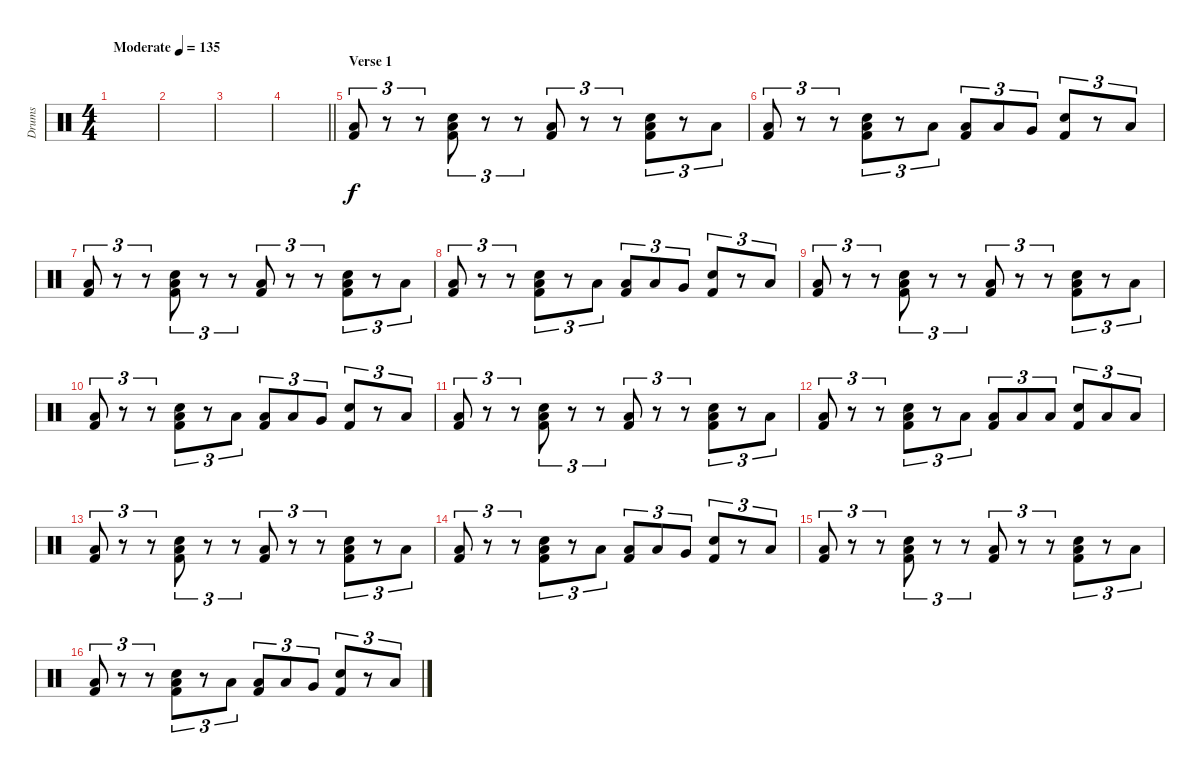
\track ("Drums" "Drums") {instrument percussion}
\staff {score}
\articulation defaults
\ts (4 4)
\tempo (135 "Moderate")
\clef neutral
\ks c
|
|
|
\barLineRight lightlight
|
\section ("" "Verse 1")
("Low Floor Tom (hit)" "Kick (hit) 2").8{tu (3 2)} r.8{tu (3 2)} r.8{tu (3 2)} ("Electric Snare (hit)" "Low Floor Tom (hit)" "Kick (hit) 2").8{tu (3 2)} r.8{tu (3 2)} r.8{tu (3 2)} ("Low Floor Tom (hit)" "Kick (hit) 2").8{tu (3 2)} r.8{tu (3 2)} r.8{tu (3 2)} ("Electric Snare (hit)" "Low Floor Tom (hit)" "Kick (hit) 2").8{tu (3 2)} r.8{tu (3 2)} "Low Floor Tom (hit)".8{tu (3 2)} |
("Low Floor Tom (hit)" "Kick (hit) 2").8{tu (3 2)} r.8{tu (3 2)} r.8{tu (3 2)} ("Electric Snare (hit)" "Low Floor Tom (hit)" "Kick (hit) 2").8{tu (3 2)} r.8{tu (3 2)} "Low Floor Tom (hit)".8{tu (3 2)} ("Low Floor Tom (hit)" "Kick (hit) 2").8{tu (3 2)} "Low Tom (hit)".8{tu (3 2)} "Very Low Tom (hit)".8{tu (3 2)} ("Electric Snare (hit)" "Kick (hit) 2").8{tu (3 2)} r.8{tu (3 2)} "Low Floor Tom (hit)".8{tu (3 2)} |
("Low Floor Tom (hit)" "Kick (hit) 2").8{tu (3 2)} r.8{tu (3 2)} r.8{tu (3 2)} ("Electric Snare (hit)" "Low Floor Tom (hit)" "Kick (hit) 2").8{tu (3 2)} r.8{tu (3 2)} r.8{tu (3 2)} ("Low Floor Tom (hit)" "Kick (hit) 2").8{tu (3 2)} r.8{tu (3 2)} r.8{tu (3 2)} ("Electric Snare (hit)" "Low Floor Tom (hit)" "Kick (hit) 2").8{tu (3 2)} r.8{tu (3 2)} "Low Floor Tom (hit)".8{tu (3 2)} |
("Low Floor Tom (hit)" "Kick (hit) 2").8{tu (3 2)} r.8{tu (3 2)} r.8{tu (3 2)} ("Electric Snare (hit)" "Low Floor Tom (hit)" "Kick (hit) 2").8{tu (3 2)} r.8{tu (3 2)} "Low Floor Tom (hit)".8{tu (3 2)} ("Low Floor Tom (hit)" "Kick (hit) 2").8{tu (3 2)} "Low Tom (hit)".8{tu (3 2)} "Very Low Tom (hit)".8{tu (3 2)} ("Electric Snare (hit)" "Kick (hit) 2").8{tu (3 2)} r.8{tu (3 2)} "Low Floor Tom (hit)".8{tu (3 2)} |
("Low Floor Tom (hit)" "Kick (hit) 2").8{tu (3 2)} r.8{tu (3 2)} r.8{tu (3 2)} ("Electric Snare (hit)" "Low Floor Tom (hit)" "Kick (hit) 2").8{tu (3 2)} r.8{tu (3 2)} r.8{tu (3 2)} ("Low Floor Tom (hit)" "Kick (hit) 2").8{tu (3 2)} r.8{tu (3 2)} r.8{tu (3 2)} ("Electric Snare (hit)" "Low Floor Tom (hit)" "Kick (hit) 2").8{tu (3 2)} r.8{tu (3 2)} "Low Floor Tom (hit)".8{tu (3 2)} |
("Low Floor Tom (hit)" "Kick (hit) 2").8{tu (3 2)} r.8{tu (3 2)} r.8{tu (3 2)} ("Electric Snare (hit)" "Low Floor Tom (hit)" "Kick (hit) 2").8{tu (3 2)} r.8{tu (3 2)} "Low Floor Tom (hit)".8{tu (3 2)} ("Low Floor Tom (hit)" "Kick (hit) 2").8{tu (3 2)} "Low Tom (hit)".8{tu (3 2)} "Very Low Tom (hit)".8{tu (3 2)} ("Electric Snare (hit)" "Kick (hit) 2").8{tu (3 2)} r.8{tu (3 2)} "Low Floor Tom (hit)".8{tu (3 2)} |
("Low Floor Tom (hit)" "Kick (hit) 2").8{tu (3 2)} r.8{tu (3 2)} r.8{tu (3 2)} ("Electric Snare (hit)" "Low Floor Tom (hit)" "Kick (hit) 2").8{tu (3 2)} r.8{tu (3 2)} r.8{tu (3 2)} ("Low Floor Tom (hit)" "Kick (hit) 2").8{tu (3 2)} r.8{tu (3 2)} r.8{tu (3 2)} ("Electric Snare (hit)" "Low Floor Tom (hit)" "Kick (hit) 2").8{tu (3 2)} r.8{tu (3 2)} "Low Floor Tom (hit)".8{tu (3 2)} |
("Low Floor Tom (hit)" "Kick (hit) 2").8{tu (3 2)} r.8{tu (3 2)} r.8{tu (3 2)} ("Electric Snare (hit)" "Low Floor Tom (hit)" "Kick (hit) 2").8{tu (3 2)} r.8{tu (3 2)} "Low Floor Tom (hit)".8{tu (3 2)} ("Low Floor Tom (hit)" "Kick (hit) 2").8{tu (3 2)} "Low Floor Tom (hit)".8{tu (3 2)} "Low Floor Tom (hit)".8{tu (3 2)} ("Electric Snare (hit)" "Kick (hit) 2").8{tu (3 2)} "Low Floor Tom (hit)".8{tu (3 2)} "Low Floor Tom (hit)".8{tu (3 2)} |
("Low Floor Tom (hit)" "Kick (hit) 2").8{tu (3 2)} r.8{tu (3 2)} r.8{tu (3 2)} ("Electric Snare (hit)" "Low Floor Tom (hit)" "Kick (hit) 2").8{tu (3 2)} r.8{tu (3 2)} r.8{tu (3 2)} ("Low Floor Tom (hit)" "Kick (hit) 2").8{tu (3 2)} r.8{tu (3 2)} r.8{tu (3 2)} ("Electric Snare (hit)" "Low Floor Tom (hit)" "Kick (hit) 2").8{tu (3 2)} r.8{tu (3 2)} "Low Floor Tom (hit)".8{tu (3 2)} |
("Low Floor Tom (hit)" "Kick (hit) 2").8{tu (3 2)} r.8{tu (3 2)} r.8{tu (3 2)} ("Electric Snare (hit)" "Low Floor Tom (hit)" "Kick (hit) 2").8{tu (3 2)} r.8{tu (3 2)} "Low Floor Tom (hit)".8{tu (3 2)} ("Low Floor Tom (hit)" "Kick (hit) 2").8{tu (3 2)} "Low Tom (hit)".8{tu (3 2)} "Very Low Tom (hit)".8{tu (3 2)} ("Electric Snare (hit)" "Kick (hit) 2").8{tu (3 2)} r.8{tu (3 2)} "Low Floor Tom (hit)".8{tu (3 2)} |
("Low Floor Tom (hit)" "Kick (hit) 2").8{tu (3 2)} r.8{tu (3 2)} r.8{tu (3 2)} ("Electric Snare (hit)" "Low Floor Tom (hit)" "Kick (hit) 2").8{tu (3 2)} r.8{tu (3 2)} r.8{tu (3 2)} ("Low Floor Tom (hit)" "Kick (hit) 2").8{tu (3 2)} r.8{tu (3 2)} r.8{tu (3 2)} ("Electric Snare (hit)" "Low Floor Tom (hit)" "Kick (hit) 2").8{tu (3 2)} r.8{tu (3 2)} "Low Floor Tom (hit)".8{tu (3 2)} |
("Low Floor Tom (hit)" "Kick (hit) 2").8{tu (3 2)} r.8{tu (3 2)} r.8{tu (3 2)} ("Electric Snare (hit)" "Low Floor Tom (hit)" "Kick (hit) 2").8{tu (3 2)} r.8{tu (3 2)} "Low Floor Tom (hit)".8{tu (3 2)} ("Low Floor Tom (hit)" "Kick (hit) 2").8{tu (3 2)} "Low Tom (hit)".8{tu (3 2)} "Very Low Tom (hit)".8{tu (3 2)} ("Electric Snare (hit)" "Kick (hit) 2").8{tu (3 2)} r.8{tu (3 2)} "Low Floor Tom (hit)".8{tu (3 2)}
